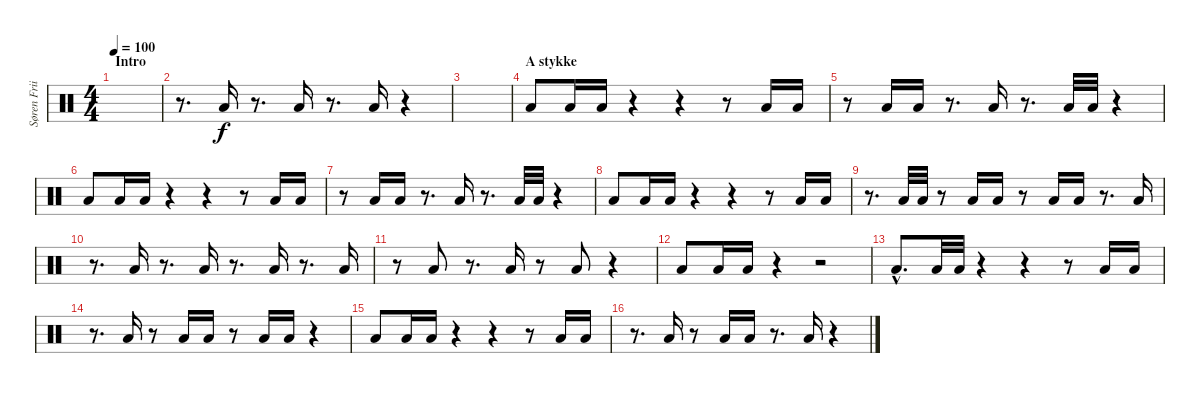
\track ("Søren Friis (Drums)" "Søren Frii") {instrument percussion}
\staff {score}
\articulation defaults
\ts (4 4)
\section ("" "Intro")
\tempo 100
\clef neutral
\ks c
|
r.8{d} "Low Floor Tom (hit)".16 r.8{d} "Low Floor Tom (hit)".16 r.8{d} "Low Floor Tom (hit)".16 r.4 |
|
\section ("" "A stykke")
"Low Floor Tom (hit)".8 "Low Floor Tom (hit)".16 "Low Floor Tom (hit)".16 r.4 r.4 r.8 "Low Floor Tom (hit)".16 "Low Floor Tom (hit)".16 |
r.8 "Low Floor Tom (hit)".16 "Low Floor Tom (hit)".16 r.8{d} "Low Floor Tom (hit)".16 r.8{d} "Low Floor Tom (hit)".32 "Low Floor Tom (hit)".32 r.4 |
"Low Floor Tom (hit)".8 "Low Floor Tom (hit)".16 "Low Floor Tom (hit)".16 r.4 r.4 r.8 "Low Floor Tom (hit)".16 "Low Floor Tom (hit)".16 |
r.8 "Low Floor Tom (hit)".16 "Low Floor Tom (hit)".16 r.8{d} "Low Floor Tom (hit)".16 r.8{d} "Low Floor Tom (hit)".32 "Low Floor Tom (hit)".32 r.4 |
"Low Floor Tom (hit)".8 "Low Floor Tom (hit)".16 "Low Floor Tom (hit)".16 r.4 r.4 r.8 "Low Floor Tom (hit)".16 "Low Floor Tom (hit)".16 |
r.8{d} "Low Floor Tom (hit)".32 "Low Floor Tom (hit)".32 r.8 "Low Floor Tom (hit)".16 "Low Floor Tom (hit)".16 r.8 "Low Floor Tom (hit)".16 "Low Floor Tom (hit)".16 r.8{d} "Low Floor Tom (hit)".16 |
r.8{d} "Low Floor Tom (hit)".16 r.8{d} "Low Floor Tom (hit)".16 r.8{d} "Low Floor Tom (hit)".16 r.8{d} "Low Floor Tom (hit)".16 |
r.8 "Low Floor Tom (hit)".8 r.8{d} "Low Floor Tom (hit)".16 r.8 "Low Floor Tom (hit)".8 r.4 |
"Low Floor Tom (hit)".8 "Low Floor Tom (hit)".16 "Low Floor Tom (hit)".16 r.4 r.2 |
"Low Floor Tom (hit)"{hac}.8{d} "Low Floor Tom (hit)".32 "Low Floor Tom (hit)".32 r.4 r.4 r.8 "Low Floor Tom (hit)".16 "Low Floor Tom (hit)".16 |
r.8{d} "Low Floor Tom (hit)".16 r.8 "Low Floor Tom (hit)".16 "Low Floor Tom (hit)".16 r.8 "Low Floor Tom (hit)".16 "Low Floor Tom (hit)".16 r.4 |
"Low Floor Tom (hit)".8 "Low Floor Tom (hit)".16 "Low Floor Tom (hit)".16 r.4 r.4 r.8 "Low Floor Tom (hit)".16 "Low Floor Tom (hit)".16 |
r.8{d} "Low Floor Tom (hit)".16 r.8 "Low Floor Tom (hit)".16 "Low Floor Tom (hit)".16 r.8{d} "Low Floor Tom (hit)".16 r.4
